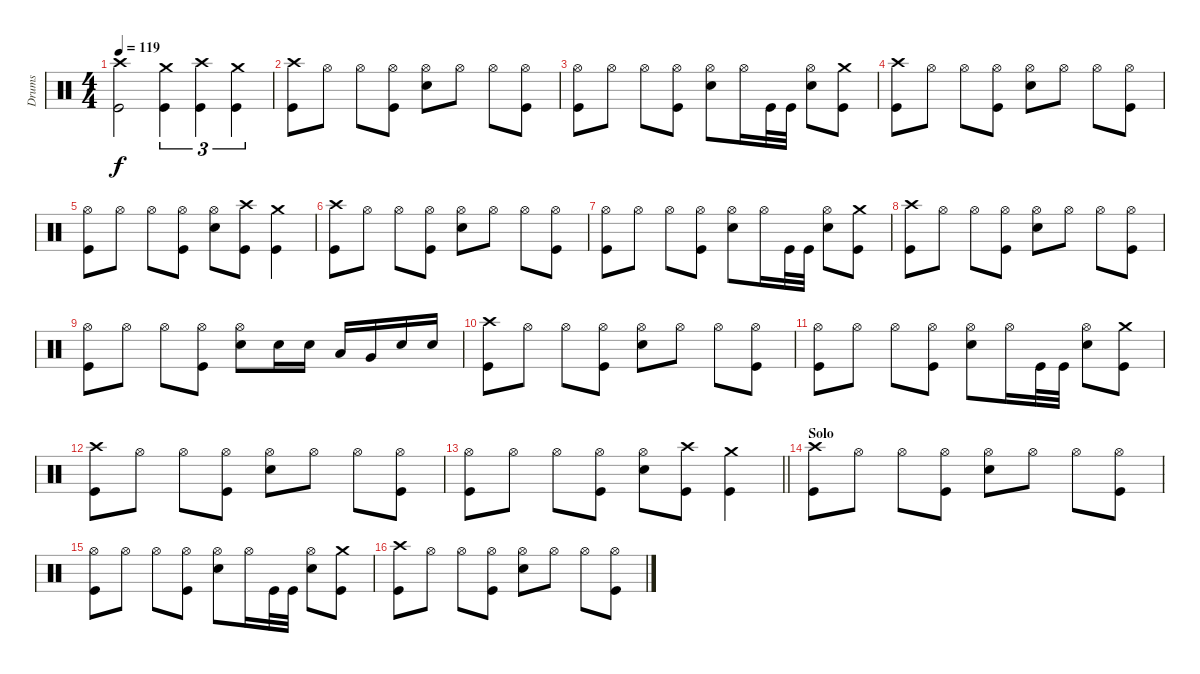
\track ("Drums" "Drums") {instrument percussion}
\staff {score}
\articulation defaults
\ts (4 4)
\tempo 119
\clef neutral
\ks c
("Crash high (hit)" "Kick (hit)").2{dy f} ("Crash medium (hit)" "Kick (hit)").4{tu (3 2)} ("Crash high (hit)" "Kick (hit)").4{tu (3 2)} ("Crash medium (hit)" "Kick (hit)").4{tu (3 2)} |
("Crash high (hit)" "Kick (hit)").8 "Hi-Hat (open)".8 "Hi-Hat (open)".8 ("Hi-Hat (open)" "Kick (hit)").8 ("Hi-Hat (open)" "Snare (hit) 2").8 "Hi-Hat (open)".8 "Hi-Hat (open)".8 ("Hi-Hat (open)" "Kick (hit)").8 |
("Hi-Hat (open)" "Kick (hit)").8 "Hi-Hat (open)".8 "Hi-Hat (open)".8 ("Hi-Hat (open)" "Kick (hit)").8 ("Hi-Hat (open)" "Snare (hit) 2").8 "Hi-Hat (open)".16 "Kick (hit)".32 "Kick (hit)".32 ("Hi-Hat (open)" "Snare (hit) 2").8 ("Crash medium (hit)" "Kick (hit)").8 |
("Crash high (hit)" "Kick (hit)").8 "Hi-Hat (open)".8 "Hi-Hat (open)".8 ("Hi-Hat (open)" "Kick (hit)").8 ("Hi-Hat (open)" "Snare (hit) 2").8 "Hi-Hat (open)".8 "Hi-Hat (open)".8 ("Hi-Hat (open)" "Kick (hit)").8 |
("Hi-Hat (open)" "Kick (hit)").8 "Hi-Hat (open)".8 "Hi-Hat (open)".8 ("Hi-Hat (open)" "Kick (hit)").8 ("Hi-Hat (open)" "Snare (hit) 2").8 ("Crash high (hit)" "Kick (hit)").8 ("Crash medium (hit)" "Kick (hit)").4 |
("Crash high (hit)" "Kick (hit)").8 "Hi-Hat (open)".8 "Hi-Hat (open)".8 ("Hi-Hat (open)" "Kick (hit)").8 ("Hi-Hat (open)" "Snare (hit) 2").8 "Hi-Hat (open)".8 "Hi-Hat (open)".8 ("Hi-Hat (open)" "Kick (hit)").8 |
("Hi-Hat (open)" "Kick (hit)").8 "Hi-Hat (open)".8 "Hi-Hat (open)".8 ("Hi-Hat (open)" "Kick (hit)").8 ("Hi-Hat (open)" "Snare (hit) 2").8 "Hi-Hat (open)".16 "Kick (hit)".32 "Kick (hit)".32 ("Hi-Hat (open)" "Snare (hit) 2").8 ("Crash medium (hit)" "Kick (hit)").8 |
("Crash high (hit)" "Kick (hit)").8 "Hi-Hat (open)".8 "Hi-Hat (open)".8 ("Hi-Hat (open)" "Kick (hit)").8 ("Hi-Hat (open)" "Snare (hit) 2").8 "Hi-Hat (open)".8 "Hi-Hat (open)".8 ("Hi-Hat (open)" "Kick (hit)").8 |
("Hi-Hat (open)" "Kick (hit)").8 "Hi-Hat (open)".8 "Hi-Hat (open)".8 ("Hi-Hat (open)" "Kick (hit)").8 ("Hi-Hat (open)" "Snare (hit) 2").8 "Snare (hit) 2".16 "Snare (hit) 2".16 "Low Tom (hit)".16 "Very Low Tom (hit)".16 "Snare (hit) 2".16 "Snare (hit) 2".16 |
("Crash high (hit)" "Kick (hit)").8 "Hi-Hat (open)".8 "Hi-Hat (open)".8 ("Hi-Hat (open)" "Kick (hit)").8 ("Hi-Hat (open)" "Snare (hit) 2").8 "Hi-Hat (open)".8 "Hi-Hat (open)".8 ("Hi-Hat (open)" "Kick (hit)").8 |
("Hi-Hat (open)" "Kick (hit)").8 "Hi-Hat (open)".8 "Hi-Hat (open)".8 ("Hi-Hat (open)" "Kick (hit)").8 ("Hi-Hat (open)" "Snare (hit) 2").8 "Hi-Hat (open)".16 "Kick (hit)".32 "Kick (hit)".32 ("Hi-Hat (open)" "Snare (hit) 2").8 ("Crash medium (hit)" "Kick (hit)").8 |
("Crash high (hit)" "Kick (hit)").8 "Hi-Hat (open)".8 "Hi-Hat (open)".8 ("Hi-Hat (open)" "Kick (hit)").8 ("Hi-Hat (open)" "Snare (hit) 2").8 "Hi-Hat (open)".8 "Hi-Hat (open)".8 ("Hi-Hat (open)" "Kick (hit)").8 |
\barLineRight lightlight
("Hi-Hat (open)" "Kick (hit)").8 "Hi-Hat (open)".8 "Hi-Hat (open)".8 ("Hi-Hat (open)" "Kick (hit)").8 ("Hi-Hat (open)" "Snare (hit) 2").8 ("Crash high (hit)" "Kick (hit)").8 ("Crash medium (hit)" "Kick (hit)").4 |
\section ("" "Solo")
("Crash high (hit)" "Kick (hit)").8 "Hi-Hat (open)".8 "Hi-Hat (open)".8 ("Hi-Hat (open)" "Kick (hit)").8 ("Hi-Hat (open)" "Snare (hit) 2").8 "Hi-Hat (open)".8 "Hi-Hat (open)".8 ("Hi-Hat (open)" "Kick (hit)").8 |
("Hi-Hat (open)" "Kick (hit)").8 "Hi-Hat (open)".8 "Hi-Hat (open)".8 ("Hi-Hat (open)" "Kick (hit)").8 ("Hi-Hat (open)" "Snare (hit) 2").8 "Hi-Hat (open)".16 "Kick (hit)".32 "Kick (hit)".32 ("Hi-Hat (open)" "Snare (hit) 2").8 ("Crash medium (hit)" "Kick (hit)").8 |
("Crash high (hit)" "Kick (hit)").8 "Hi-Hat (open)".8 "Hi-Hat (open)".8 ("Hi-Hat (open)" "Kick (hit)").8 ("Hi-Hat (open)" "Snare (hit) 2").8 "Hi-Hat (open)".8 "Hi-Hat (open)".8 ("Hi-Hat (open)" "Kick (hit)").8
